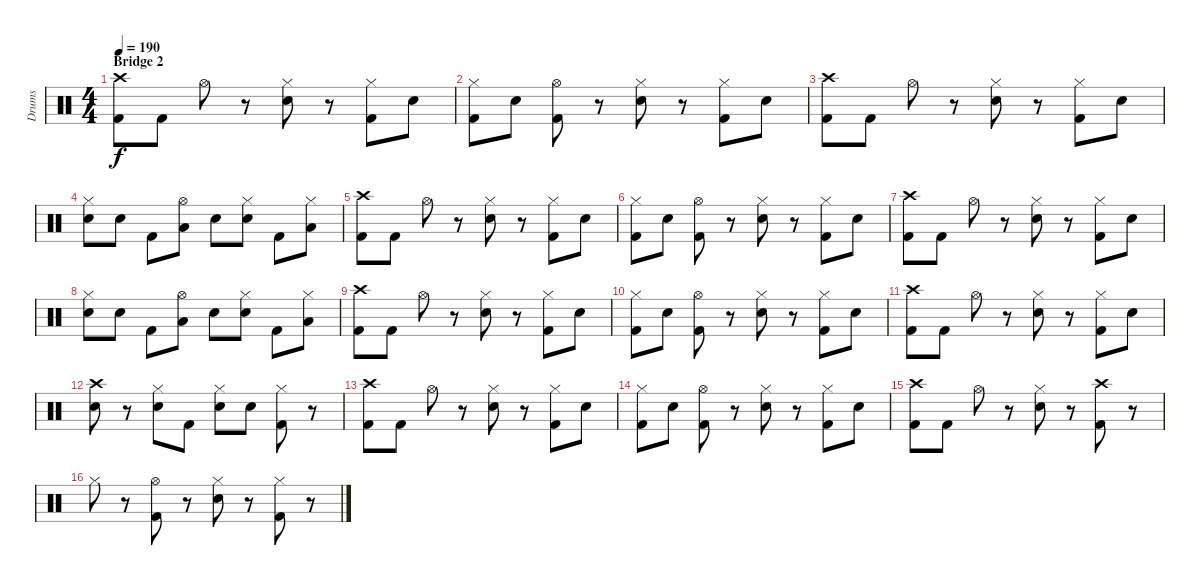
\track ("Drums" "Drums") {instrument percussion}
\staff {score}
\articulation defaults
\ts (4 4)
\section ("" "Bridge 2")
\tempo 190
\clef neutral
\ks c
("Crash high (hit)" "Kick (hit) 2").8{dy f} "Kick (hit) 2".8 "Hi-Hat (open)".8 r.8 ("Hi-Hat (closed)" "Electric Snare (hit)").8 r.8 ("Hi-Hat (closed)" "Kick (hit) 2").8 "Electric Snare (hit)".8 |
("Hi-Hat (closed)" "Kick (hit) 2").8 "Electric Snare (hit)".8 ("Hi-Hat (open)" "Kick (hit) 2").8 r.8 ("Hi-Hat (closed)" "Electric Snare (hit)").8 r.8 ("Hi-Hat (closed)" "Kick (hit) 2").8 "Electric Snare (hit)".8 |
("Crash high (hit)" "Kick (hit) 2").8 "Kick (hit) 2".8 "Hi-Hat (open)".8 r.8 ("Hi-Hat (closed)" "Electric Snare (hit)").8 r.8 ("Hi-Hat (closed)" "Kick (hit) 2").8 "Electric Snare (hit)".8 |
("Hi-Hat (closed)" "Electric Snare (hit)").8 "Electric Snare (hit)".8 "Kick (hit) 2".8 ("Hi-Hat (open)" "Low Floor Tom (hit)").8 "Electric Snare (hit)".8 ("Hi-Hat (closed)" "Electric Snare (hit)").8 "Kick (hit) 2".8 ("Hi-Hat (closed)" "Low Floor Tom (hit)").8 |
("Crash high (hit)" "Kick (hit) 2").8 "Kick (hit) 2".8 "Hi-Hat (open)".8 r.8 ("Hi-Hat (closed)" "Electric Snare (hit)").8 r.8 ("Hi-Hat (closed)" "Kick (hit) 2").8 "Electric Snare (hit)".8 |
("Hi-Hat (closed)" "Kick (hit) 2").8 "Electric Snare (hit)".8 ("Hi-Hat (open)" "Kick (hit) 2").8 r.8 ("Hi-Hat (closed)" "Electric Snare (hit)").8 r.8 ("Hi-Hat (closed)" "Kick (hit) 2").8 "Electric Snare (hit)".8 |
("Crash high (hit)" "Kick (hit) 2").8 "Kick (hit) 2".8 "Hi-Hat (open)".8 r.8 ("Hi-Hat (closed)" "Electric Snare (hit)").8 r.8 ("Hi-Hat (closed)" "Kick (hit) 2").8 "Electric Snare (hit)".8 |
("Hi-Hat (closed)" "Electric Snare (hit)").8 "Electric Snare (hit)".8 "Kick (hit) 2".8 ("Hi-Hat (open)" "Low Floor Tom (hit)").8 "Electric Snare (hit)".8 ("Hi-Hat (closed)" "Electric Snare (hit)").8 "Kick (hit) 2".8 ("Hi-Hat (closed)" "Low Floor Tom (hit)").8 |
("Crash high (hit)" "Kick (hit) 2").8 "Kick (hit) 2".8 "Hi-Hat (open)".8 r.8 ("Hi-Hat (closed)" "Electric Snare (hit)").8 r.8 ("Hi-Hat (closed)" "Kick (hit) 2").8 "Electric Snare (hit)".8 |
("Hi-Hat (closed)" "Kick (hit) 2").8 "Electric Snare (hit)".8 ("Hi-Hat (open)" "Kick (hit) 2").8 r.8 ("Hi-Hat (closed)" "Electric Snare (hit)").8 r.8 ("Hi-Hat (closed)" "Kick (hit) 2").8 "Electric Snare (hit)".8 |
("Crash high (hit)" "Kick (hit) 2").8 "Kick (hit) 2".8 "Hi-Hat (open)".8 r.8 ("Hi-Hat (closed)" "Electric Snare (hit)").8 r.8 ("Hi-Hat (closed)" "Kick (hit) 2").8 "Electric Snare (hit)".8 |
("Crash high (hit)" "Electric Snare (hit)").8 r.8 ("Hi-Hat (closed)" "Electric Snare (hit)").8 "Kick (hit) 2".8 ("Hi-Hat (closed)" "Electric Snare (hit)").8 "Electric Snare (hit)".8 ("Hi-Hat (closed)" "Kick (hit) 2").8 r.8 |
("Crash high (hit)" "Kick (hit) 2").8 "Kick (hit) 2".8 "Hi-Hat (open)".8 r.8 ("Hi-Hat (closed)" "Electric Snare (hit)").8 r.8 ("Hi-Hat (closed)" "Kick (hit) 2").8 "Electric Snare (hit)".8 |
("Hi-Hat (closed)" "Kick (hit) 2").8 "Electric Snare (hit)".8 ("Hi-Hat (open)" "Kick (hit) 2").8 r.8 ("Hi-Hat (closed)" "Electric Snare (hit)").8 r.8 ("Hi-Hat (closed)" "Kick (hit) 2").8 "Electric Snare (hit)".8 |
("Crash high (hit)" "Kick (hit) 2").8 "Kick (hit) 2".8 "Hi-Hat (open)".8 r.8 ("Hi-Hat (closed)" "Electric Snare (hit)").8 r.8 ("Crash high (hit)" "Kick (hit) 2").8 r.8 |
"Hi-Hat (closed)".8 r.8 ("Hi-Hat (open)" "Kick (hit) 2").8 r.8 ("Hi-Hat (closed)" "Electric Snare (hit)").8 r.8 ("Hi-Hat (closed)" "Kick (hit) 2").8 r.8
